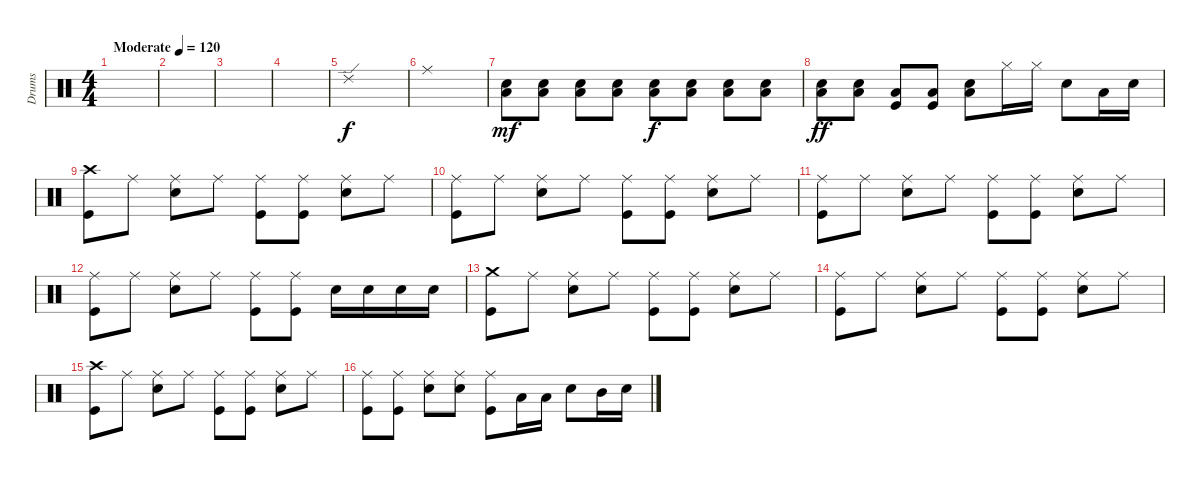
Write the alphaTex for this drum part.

\track ("Drums" "Drums") {instrument percussion}
\staff {score}
\articulation defaults
\ts (4 4)
\tempo (120 "Moderate")
\clef neutral
\ks c
|
|
|
|
"Ride (edge) 2".1 |
"Ride (middle)".1 |
("Low Floor Tom (hit)" "Snare (hit) 2").8{dy mf} ("Low Floor Tom (hit)" "Snare (hit) 2").8 ("Low Floor Tom (hit)" "Snare (hit) 2").8 ("Low Floor Tom (hit)" "Snare (hit) 2").8 ("Low Floor Tom (hit)" "Snare (hit) 2").8{dy f} ("Low Floor Tom (hit)" "Snare (hit) 2").8 ("Low Floor Tom (hit)" "Snare (hit) 2").8 ("Low Floor Tom (hit)" "Snare (hit) 2").8 |
("Low Floor Tom (hit)" "Snare (hit) 2").8{dy ff} ("Low Floor Tom (hit)" "Snare (hit) 2").8 ("Low Floor Tom (hit)" "Kick (hit)").8 ("Low Floor Tom (hit)" "Kick (hit)").8 ("Low Floor Tom (hit)" "Snare (hit) 2").8 "Hi-Hat (closed)".16 "Hi-Hat (closed)".16 "Snare (hit) 2".8 "Low Tom (hit)".16 "Snare (hit) 2".16 |
("Crash high (hit)" "Kick (hit)").8 "Ride (middle)".8 ("Ride (middle)" "Snare (hit) 2").8 "Ride (middle)".8 ("Ride (middle)" "Kick (hit)").8 ("Ride (middle)" "Kick (hit)").8 ("Ride (middle)" "Snare (hit) 2").8 "Ride (middle)".8 |
("Ride (middle)" "Kick (hit)").8 "Ride (middle)".8 ("Ride (middle)" "Snare (hit) 2").8 "Ride (middle)".8 ("Ride (middle)" "Kick (hit)").8 ("Ride (middle)" "Kick (hit)").8 ("Ride (middle)" "Snare (hit) 2").8 "Ride (middle)".8 |
("Ride (middle)" "Kick (hit)").8 "Ride (middle)".8 ("Ride (middle)" "Snare (hit) 2").8 "Ride (middle)".8 ("Ride (middle)" "Kick (hit)").8 ("Ride (middle)" "Kick (hit)").8 ("Ride (middle)" "Snare (hit) 2").8 "Ride (middle)".8 |
("Ride (middle)" "Kick (hit)").8 "Ride (middle)".8 ("Ride (middle)" "Snare (hit) 2").8 "Ride (middle)".8 ("Ride (middle)" "Kick (hit)").8 ("Ride (middle)" "Kick (hit)").8 "Snare (hit) 2".16 "Snare (hit) 2".16 "Snare (hit) 2".16 "Snare (hit) 2".16 |
("Crash medium (hit)" "Kick (hit)").8 "Ride (middle)".8 ("Ride (middle)" "Snare (hit) 2").8 "Ride (middle)".8 ("Ride (middle)" "Kick (hit)").8 ("Ride (middle)" "Kick (hit)").8 ("Ride (middle)" "Snare (hit) 2").8 "Ride (middle)".8 |
("Ride (middle)" "Kick (hit)").8 "Ride (middle)".8 ("Ride (middle)" "Snare (hit) 2").8 "Ride (middle)".8 ("Ride (middle)" "Kick (hit)").8 ("Ride (middle)" "Kick (hit)").8 ("Ride (middle)" "Snare (hit) 2").8 "Ride (middle)".8 |
("Crash high (hit)" "Kick (hit)").8 "Ride (middle)".8 ("Ride (middle)" "Snare (hit) 2").8 "Ride (middle)".8 ("Ride (middle)" "Kick (hit)").8 ("Ride (middle)" "Kick (hit)").8 ("Ride (middle)" "Snare (hit) 2").8 "Ride (middle)".8 |
("Ride (middle)" "Kick (hit)").8 ("Ride (middle)" "Kick (hit)").8 ("Ride (middle)" "Snare (hit) 2").8 ("Ride (middle)" "Snare (hit) 2").8 ("Ride (middle)" "Kick (hit)").8 "Low Tom (hit)".16 "Low Tom (hit)".16 "Snare (hit) 2".8 "Mid Tom (hit)".16 "Snare (hit) 2".16
